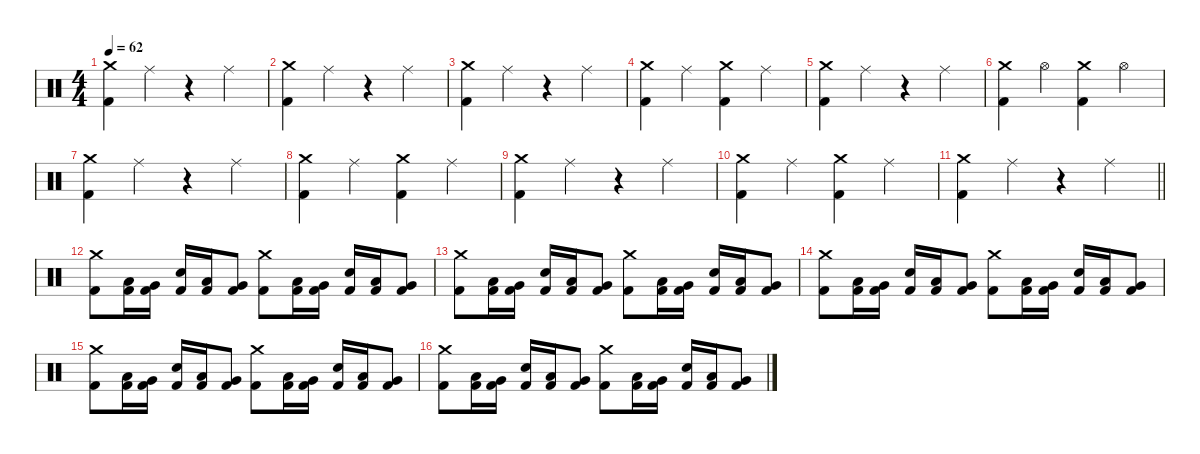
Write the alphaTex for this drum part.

\defaultSystemsLayout 4
\hideDynamics
\bracketExtendMode nobrackets
\singleTrackTrackNamePolicy hidden
\multiTrackTrackNamePolicy hidden
\firstSystemTrackNameMode fullname
\otherSystemsTrackNameOrientation horizontal
\track ("Drums" "drm.") {defaultSystemsLayout 4 instrument percussion}
\staff {score}
\articulation defaults
\ts (4 4)
\tempo 62
\clef neutral
\ks c
("Crash medium (hit)" "Kick (hit) 2").4{dy f beam Down} "Ride (middle)".4{beam Down} r.4{beam Down} "Ride (middle)".4{beam Down} |
("Crash medium (hit)" "Kick (hit) 2").4{beam Down} "Ride (middle)".4{beam Down} r.4{beam Down} "Ride (middle)".4{beam Down} |
("Crash medium (hit)" "Kick (hit) 2").4{beam Down} "Ride (middle)".4{beam Down} r.4{beam Down} "Ride (middle)".4{beam Down} |
("Crash medium (hit)" "Kick (hit) 2").4{beam Down} "Ride (middle)".4{beam Down} ("Crash medium (hit)" "Kick (hit) 2").4{beam Down} "Ride (middle)".4{beam Down} |
("Crash medium (hit)" "Kick (hit) 2").4{beam Down} "Ride (middle)".4{beam Down} r.4{beam Down} "Ride (middle)".4{beam Down} |
("Crash medium (hit)" "Kick (hit) 2").4{beam Down} "Hi-Hat (open)".4{beam Down} ("Crash medium (hit)" "Kick (hit) 2").4{beam Down} "Hi-Hat (open)".4{beam Down} |
("Crash medium (hit)" "Kick (hit) 2").4{beam Down} "Ride (middle)".4{beam Down} r.4{beam Down} "Ride (middle)".4{beam Down} |
("Crash medium (hit)" "Kick (hit) 2").4{beam Down} "Ride (middle)".4{beam Down} ("Crash medium (hit)" "Kick (hit) 2").4{beam Down} "Ride (middle)".4{beam Down} |
("Crash medium (hit)" "Kick (hit) 2").4{beam Down} "Ride (middle)".4{beam Down} r.4{beam Down} "Ride (middle)".4{beam Down} |
("Crash medium (hit)" "Kick (hit) 2").4{beam Down} "Ride (middle)".4{beam Down} ("Crash medium (hit)" "Kick (hit) 2").4{beam Down} "Ride (middle)".4{beam Down} |
\barLineRight lightlight
("Crash medium (hit)" "Kick (hit) 2").4{beam Down} "Ride (middle)".4{beam Down} r.4{beam Down} "Ride (middle)".4{beam Down} |
("Crash medium (hit)" "Kick (hit) 2").8{beam Down} ("Low Tom (hit)" "Kick (hit) 2").16{beam Down} ("Very Low Tom (hit)" "Kick (hit) 2").16{beam Down} ("Snare (hit) 2" "Kick (hit) 2").16{beam Up} ("Low Tom (hit)" "Kick (hit) 2").16{beam Up} ("Very Low Tom (hit)" "Kick (hit) 2").8{beam Up} ("Crash medium (hit)" "Kick (hit) 2").8{beam Down} ("Low Tom (hit)" "Kick (hit) 2").16{beam Down} ("Very Low Tom (hit)" "Kick (hit) 2").16{beam Down} ("Snare (hit) 2" "Kick (hit) 2").16{beam Up} ("Low Tom (hit)" "Kick (hit) 2").16{beam Up} ("Very Low Tom (hit)" "Kick (hit) 2").8{beam Up} |
("Crash medium (hit)" "Kick (hit) 2").8{beam Down} ("Low Tom (hit)" "Kick (hit) 2").16{beam Down} ("Very Low Tom (hit)" "Kick (hit) 2").16{beam Down} ("Snare (hit) 2" "Kick (hit) 2").16{beam Up} ("Low Tom (hit)" "Kick (hit) 2").16{beam Up} ("Very Low Tom (hit)" "Kick (hit) 2").8{beam Up} ("Crash medium (hit)" "Kick (hit) 2").8{beam Down} ("Low Tom (hit)" "Kick (hit) 2").16{beam Down} ("Very Low Tom (hit)" "Kick (hit) 2").16{beam Down} ("Snare (hit) 2" "Kick (hit) 2").16{beam Up} ("Low Tom (hit)" "Kick (hit) 2").16{beam Up} ("Very Low Tom (hit)" "Kick (hit) 2").8{beam Up} |
("Crash medium (hit)" "Kick (hit) 2").8{beam Down} ("Low Tom (hit)" "Kick (hit) 2").16{beam Down} ("Very Low Tom (hit)" "Kick (hit) 2").16{beam Down} ("Snare (hit) 2" "Kick (hit) 2").16{beam Up} ("Low Tom (hit)" "Kick (hit) 2").16{beam Up} ("Very Low Tom (hit)" "Kick (hit) 2").8{beam Up} ("Crash medium (hit)" "Kick (hit) 2").8{beam Down} ("Low Tom (hit)" "Kick (hit) 2").16{beam Down} ("Very Low Tom (hit)" "Kick (hit) 2").16{beam Down} ("Snare (hit) 2" "Kick (hit) 2").16{beam Up} ("Low Tom (hit)" "Kick (hit) 2").16{beam Up} ("Very Low Tom (hit)" "Kick (hit) 2").8{beam Up} |
("Crash medium (hit)" "Kick (hit) 2").8{beam Down} ("Low Tom (hit)" "Kick (hit) 2").16{beam Down} ("Very Low Tom (hit)" "Kick (hit) 2").16{beam Down} ("Snare (hit) 2" "Kick (hit) 2").16{beam Up} ("Low Tom (hit)" "Kick (hit) 2").16{beam Up} ("Very Low Tom (hit)" "Kick (hit) 2").8{beam Up} ("Crash medium (hit)" "Kick (hit) 2").8{beam Down} ("Low Tom (hit)" "Kick (hit) 2").16{beam Down} ("Very Low Tom (hit)" "Kick (hit) 2").16{beam Down} ("Snare (hit) 2" "Kick (hit) 2").16{beam Up} ("Low Tom (hit)" "Kick (hit) 2").16{beam Up} ("Very Low Tom (hit)" "Kick (hit) 2").8{beam Up} |
("Crash medium (hit)" "Kick (hit) 2").8{beam Down} ("Low Tom (hit)" "Kick (hit) 2").16{beam Down} ("Very Low Tom (hit)" "Kick (hit) 2").16{beam Down} ("Snare (hit) 2" "Kick (hit) 2").16{beam Up} ("Low Tom (hit)" "Kick (hit) 2").16{beam Up} ("Very Low Tom (hit)" "Kick (hit) 2").8{beam Up} ("Crash medium (hit)" "Kick (hit) 2").8{beam Down} ("Low Tom (hit)" "Kick (hit) 2").16{beam Down} ("Very Low Tom (hit)" "Kick (hit) 2").16{beam Down} ("Snare (hit) 2" "Kick (hit) 2").16{beam Up} ("Low Tom (hit)" "Kick (hit) 2").16{beam Up} ("Very Low Tom (hit)" "Kick (hit) 2").8{beam Up}
